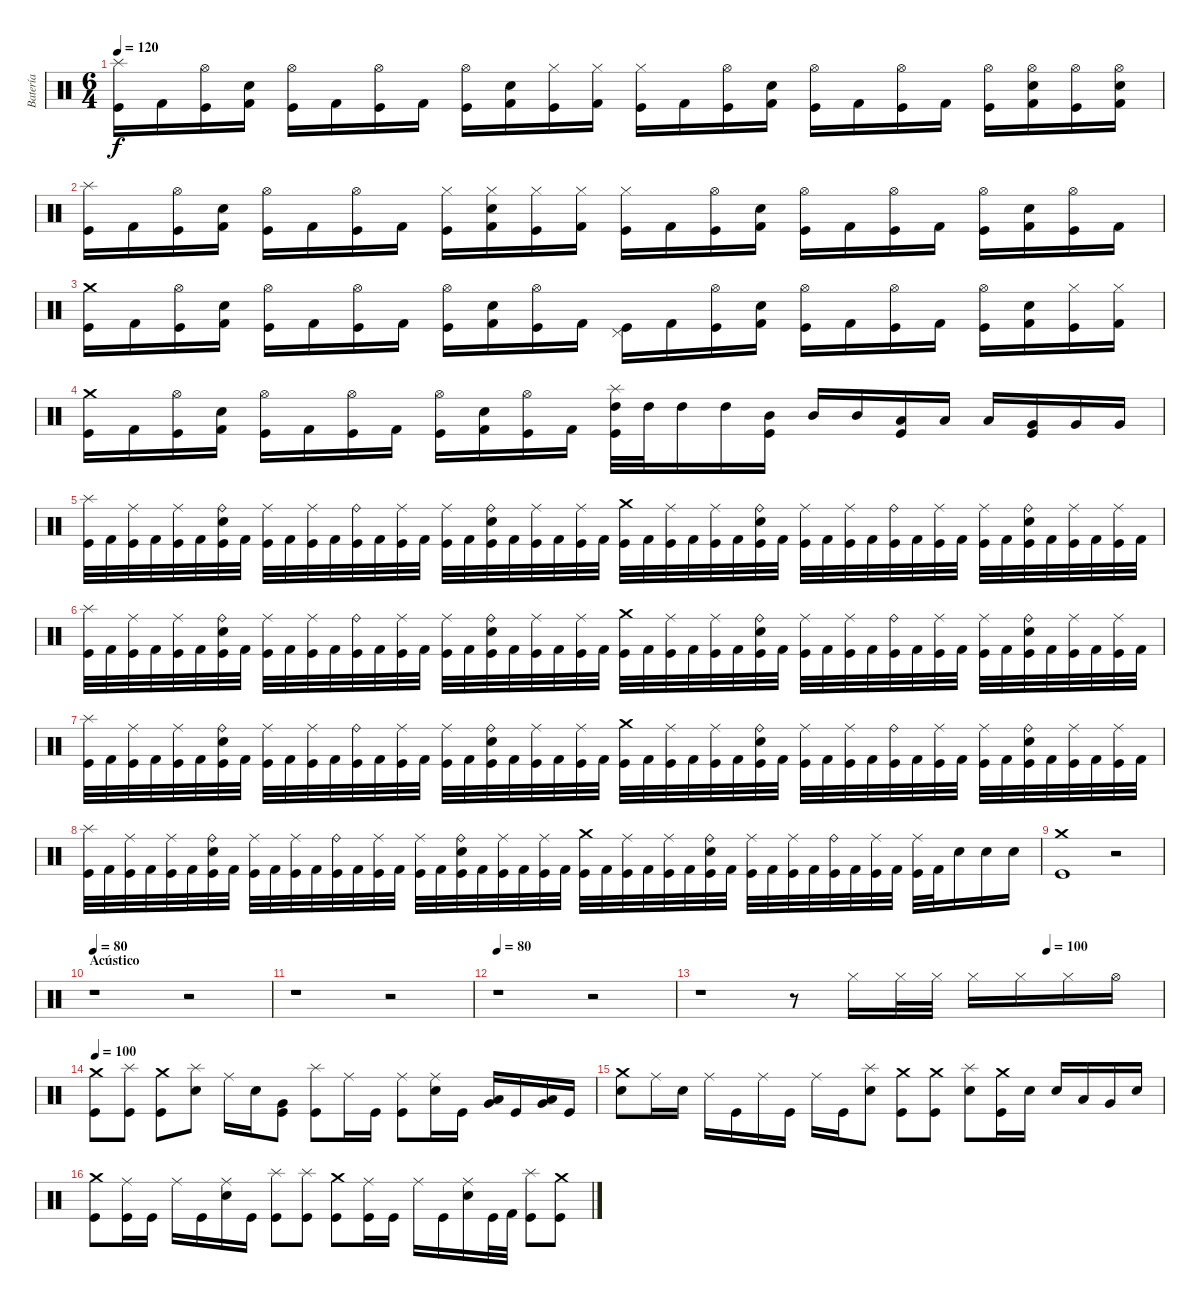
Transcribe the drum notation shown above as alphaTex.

\track ("Batería" "Batería") {instrument percussion}
\staff {score}
\articulation defaults
\ts (6 4)
\tempo 120
\clef neutral
\ks c
("Splash (hit)" "Kick (hit)").16{dy f} "Kick (hit) 2".16 ("Hi-Hat (open)" "Kick (hit)").16 ("Electric Snare (hit)" "Kick (hit) 2").16 ("Hi-Hat (open)" "Kick (hit)").16 "Kick (hit) 2".16 ("Hi-Hat (open)" "Kick (hit)").16 "Kick (hit) 2".16 ("Hi-Hat (open)" "Kick (hit)").16 ("Electric Snare (hit)" "Kick (hit) 2").16 ("Hi-Hat (closed)" "Kick (hit)").16 ("Hi-Hat (closed)" "Kick (hit) 2").16 ("Hi-Hat (closed)" "Kick (hit)").16 "Kick (hit) 2".16 ("Hi-Hat (open)" "Kick (hit)").16 ("Electric Snare (hit)" "Kick (hit) 2").16 ("Hi-Hat (open)" "Kick (hit)").16 "Kick (hit) 2".16 ("Hi-Hat (open)" "Kick (hit)").16 "Kick (hit) 2".16 ("Hi-Hat (open)" "Kick (hit)").16 ("Hi-Hat (open)" "Electric Snare (hit)" "Kick (hit) 2").16 ("Hi-Hat (open)" "Kick (hit)").16 ("Hi-Hat (open)" "Electric Snare (hit)" "Kick (hit) 2").16 |
("Splash (hit)" "Kick (hit)").16 "Kick (hit) 2".16 ("Hi-Hat (open)" "Kick (hit)").16 ("Electric Snare (hit)" "Kick (hit) 2").16 ("Hi-Hat (open)" "Kick (hit)").16 "Kick (hit) 2".16 ("Hi-Hat (open)" "Kick (hit)").16 "Kick (hit) 2".16 ("Hi-Hat (closed)" "Kick (hit)").16 ("Hi-Hat (closed)" "Electric Snare (hit)" "Kick (hit) 2").16 ("Hi-Hat (closed)" "Kick (hit)").16 ("Hi-Hat (closed)" "Kick (hit) 2").16 ("Hi-Hat (closed)" "Kick (hit)").16 "Kick (hit) 2".16 ("Hi-Hat (open)" "Kick (hit)").16 ("Electric Snare (hit)" "Kick (hit) 2").16 ("Hi-Hat (open)" "Kick (hit)").16 "Kick (hit) 2".16 ("Hi-Hat (open)" "Kick (hit)").16 "Kick (hit) 2".16 ("Hi-Hat (open)" "Kick (hit)").16 ("Electric Snare (hit)" "Kick (hit) 2").16 ("Hi-Hat (open)" "Kick (hit)").16 "Kick (hit) 2".16 |
("Crash medium (hit)" "Kick (hit)").16 "Kick (hit) 2".16 ("Hi-Hat (open)" "Kick (hit)").16 ("Electric Snare (hit)" "Kick (hit) 2").16 ("Hi-Hat (open)" "Kick (hit)").16 "Kick (hit) 2".16 ("Hi-Hat (open)" "Kick (hit)").16 "Kick (hit) 2".16 ("Hi-Hat (open)" "Kick (hit)").16 ("Electric Snare (hit)" "Kick (hit) 2").16 ("Hi-Hat (open)" "Kick (hit)").16 "Kick (hit) 2".16 ("Pedal Hi-Hat (hit)" "Kick (hit)").16 "Kick (hit) 2".16 ("Hi-Hat (open)" "Kick (hit)").16 ("Electric Snare (hit)" "Kick (hit) 2").16 ("Hi-Hat (open)" "Kick (hit)").16 "Kick (hit) 2".16 ("Hi-Hat (open)" "Kick (hit)").16 "Kick (hit) 2".16 ("Hi-Hat (open)" "Kick (hit)").16 ("Electric Snare (hit)" "Kick (hit) 2").16 ("Hi-Hat (closed)" "Kick (hit)").16 ("Hi-Hat (closed)" "Kick (hit) 2").16 |
("Crash medium (hit)" "Kick (hit)").16 "Kick (hit) 2".16 ("Hi-Hat (open)" "Kick (hit)").16 ("Electric Snare (hit)" "Kick (hit) 2").16 ("Hi-Hat (open)" "Kick (hit)").16 "Kick (hit) 2".16 ("Hi-Hat (open)" "Kick (hit)").16 "Kick (hit) 2".16 ("Hi-Hat (open)" "Kick (hit)").16 ("Electric Snare (hit)" "Kick (hit) 2").16 ("Hi-Hat (open)" "Kick (hit)").16 "Kick (hit) 2".16 ("Splash (hit)" "High Tom (hit)" "Kick (hit)").32 "High Tom (hit)".32 "High Tom (hit)".16 "High Tom (hit)".16 ("Mid Tom (hit)" "Kick (hit)").16 "Mid Tom (hit)".16 "Mid Tom (hit)".16 ("Low Tom (hit)" "Kick (hit)").16 "Low Tom (hit)".16 "Low Tom (hit)".16 ("Very Low Tom (hit)" "Kick (hit)").16 "Very Low Tom (hit)".16 "Very Low Tom (hit)".16 |
("Splash (hit)" "Kick (hit)").32 "Kick (hit) 2".32 ("Ride (middle)" "Kick (hit)").32 "Kick (hit) 2".32 ("Ride (middle)" "Kick (hit)").32 "Kick (hit) 2".32 ("Ride (bell)" "Electric Snare (hit)" "Kick (hit)").32 "Kick (hit) 2".32 ("Ride (middle)" "Kick (hit)").32 "Kick (hit) 2".32 ("Ride (middle)" "Kick (hit)").32 "Kick (hit) 2".32 ("Ride (bell)" "Kick (hit)").32 "Kick (hit) 2".32 ("Ride (middle)" "Kick (hit)").32 "Kick (hit) 2".32 ("Ride (middle)" "Kick (hit)").32 "Kick (hit) 2".32 ("Ride (bell)" "Electric Snare (hit)" "Kick (hit)").32 "Kick (hit) 2".32 ("Ride (middle)" "Kick (hit)").32 "Kick (hit) 2".32 ("Ride (middle)" "Kick (hit)").32 "Kick (hit) 2".32 ("Crash medium (hit)" "Kick (hit)").32 "Kick (hit) 2".32 ("Ride (middle)" "Kick (hit)").32 "Kick (hit) 2".32 ("Ride (middle)" "Kick (hit)").32 "Kick (hit) 2".32 ("Ride (bell)" "Electric Snare (hit)" "Kick (hit)").32 "Kick (hit) 2".32 ("Ride (middle)" "Kick (hit)").32 "Kick (hit) 2".32 ("Ride (middle)" "Kick (hit)").32 "Kick (hit) 2".32 ("Ride (bell)" "Kick (hit)").32 "Kick (hit) 2".32 ("Ride (middle)" "Kick (hit)").32 "Kick (hit) 2".32 ("Ride (middle)" "Kick (hit)").32 "Kick (hit) 2".32 ("Ride (bell)" "Electric Snare (hit)" "Kick (hit)").32 "Kick (hit) 2".32 ("Ride (middle)" "Kick (hit)").32 "Kick (hit) 2".32 ("Ride (middle)" "Kick (hit)").32 "Kick (hit) 2".32 |
("Splash (hit)" "Kick (hit)").32 "Kick (hit) 2".32 ("Ride (middle)" "Kick (hit)").32 "Kick (hit) 2".32 ("Ride (middle)" "Kick (hit)").32 "Kick (hit) 2".32 ("Ride (bell)" "Electric Snare (hit)" "Kick (hit)").32 "Kick (hit) 2".32 ("Ride (middle)" "Kick (hit)").32 "Kick (hit) 2".32 ("Ride (middle)" "Kick (hit)").32 "Kick (hit) 2".32 ("Ride (bell)" "Kick (hit)").32 "Kick (hit) 2".32 ("Ride (middle)" "Kick (hit)").32 "Kick (hit) 2".32 ("Ride (middle)" "Kick (hit)").32 "Kick (hit) 2".32 ("Ride (bell)" "Electric Snare (hit)" "Kick (hit)").32 "Kick (hit) 2".32 ("Ride (middle)" "Kick (hit)").32 "Kick (hit) 2".32 ("Ride (middle)" "Kick (hit)").32 "Kick (hit) 2".32 ("Crash medium (hit)" "Kick (hit)").32 "Kick (hit) 2".32 ("Ride (middle)" "Kick (hit)").32 "Kick (hit) 2".32 ("Ride (middle)" "Kick (hit)").32 "Kick (hit) 2".32 ("Ride (bell)" "Electric Snare (hit)" "Kick (hit)").32 "Kick (hit) 2".32 ("Ride (middle)" "Kick (hit)").32 "Kick (hit) 2".32 ("Ride (middle)" "Kick (hit)").32 "Kick (hit) 2".32 ("Ride (bell)" "Kick (hit)").32 "Kick (hit) 2".32 ("Ride (middle)" "Kick (hit)").32 "Kick (hit) 2".32 ("Ride (middle)" "Kick (hit)").32 "Kick (hit) 2".32 ("Ride (bell)" "Electric Snare (hit)" "Kick (hit)").32 "Kick (hit) 2".32 ("Ride (middle)" "Kick (hit)").32 "Kick (hit) 2".32 ("Ride (middle)" "Kick (hit)").32 "Kick (hit) 2".32 |
("Splash (hit)" "Kick (hit)").32 "Kick (hit) 2".32 ("Ride (middle)" "Kick (hit)").32 "Kick (hit) 2".32 ("Ride (middle)" "Kick (hit)").32 "Kick (hit) 2".32 ("Ride (bell)" "Electric Snare (hit)" "Kick (hit)").32 "Kick (hit) 2".32 ("Ride (middle)" "Kick (hit)").32 "Kick (hit) 2".32 ("Ride (middle)" "Kick (hit)").32 "Kick (hit) 2".32 ("Ride (bell)" "Kick (hit)").32 "Kick (hit) 2".32 ("Ride (middle)" "Kick (hit)").32 "Kick (hit) 2".32 ("Ride (middle)" "Kick (hit)").32 "Kick (hit) 2".32 ("Ride (bell)" "Electric Snare (hit)" "Kick (hit)").32 "Kick (hit) 2".32 ("Ride (middle)" "Kick (hit)").32 "Kick (hit) 2".32 ("Ride (middle)" "Kick (hit)").32 "Kick (hit) 2".32 ("Crash medium (hit)" "Kick (hit)").32 "Kick (hit) 2".32 ("Ride (middle)" "Kick (hit)").32 "Kick (hit) 2".32 ("Ride (middle)" "Kick (hit)").32 "Kick (hit) 2".32 ("Ride (bell)" "Electric Snare (hit)" "Kick (hit)").32 "Kick (hit) 2".32 ("Ride (middle)" "Kick (hit)").32 "Kick (hit) 2".32 ("Ride (middle)" "Kick (hit)").32 "Kick (hit) 2".32 ("Ride (bell)" "Kick (hit)").32 "Kick (hit) 2".32 ("Ride (middle)" "Kick (hit)").32 "Kick (hit) 2".32 ("Ride (middle)" "Kick (hit)").32 "Kick (hit) 2".32 ("Ride (bell)" "Electric Snare (hit)" "Kick (hit)").32 "Kick (hit) 2".32 ("Ride (middle)" "Kick (hit)").32 "Kick (hit) 2".32 ("Ride (middle)" "Kick (hit)").32 "Kick (hit) 2".32 |
("Splash (hit)" "Kick (hit)").32 "Kick (hit) 2".32 ("Ride (middle)" "Kick (hit)").32 "Kick (hit) 2".32 ("Ride (middle)" "Kick (hit)").32 "Kick (hit) 2".32 ("Ride (bell)" "Electric Snare (hit)" "Kick (hit)").32 "Kick (hit) 2".32 ("Ride (middle)" "Kick (hit)").32 "Kick (hit) 2".32 ("Ride (middle)" "Kick (hit)").32 "Kick (hit) 2".32 ("Ride (bell)" "Kick (hit)").32 "Kick (hit) 2".32 ("Ride (middle)" "Kick (hit)").32 "Kick (hit) 2".32 ("Ride (middle)" "Kick (hit)").32 "Kick (hit) 2".32 ("Ride (bell)" "Electric Snare (hit)" "Kick (hit)").32 "Kick (hit) 2".32 ("Ride (middle)" "Kick (hit)").32 "Kick (hit) 2".32 ("Ride (middle)" "Kick (hit)").32 "Kick (hit) 2".32 ("Crash medium (hit)" "Kick (hit)").32 "Kick (hit) 2".32 ("Ride (middle)" "Kick (hit)").32 "Kick (hit) 2".32 ("Ride (middle)" "Kick (hit)").32 "Kick (hit) 2".32 ("Ride (bell)" "Electric Snare (hit)" "Kick (hit)").32 "Kick (hit) 2".32 ("Ride (middle)" "Kick (hit)").32 "Kick (hit) 2".32 ("Ride (middle)" "Kick (hit)").32 "Kick (hit) 2".32 ("Ride (bell)" "Kick (hit)").32 "Kick (hit) 2".32 ("Ride (middle)" "Kick (hit)").32 "Kick (hit) 2".32 ("Ride (middle)" "Kick (hit)").32 "Kick (hit) 2".32 "Electric Snare (hit)".16 "Electric Snare (hit)".16 "Electric Snare (hit)".16 |
("Crash medium (hit)" "Kick (hit)").1 r.2 |
\section ("" "Acústico")
\tempo 80
r.1 r.2 |
r.1 r.2 |
\tempo 80
r.1 r.2 |
\tempo (100 0.75)
r.1 r.8 "Hi-Hat (closed)".16 "Hi-Hat (closed)".32 "Hi-Hat (closed)".32 "Hi-Hat (closed)".16 "Hi-Hat (closed)".16 "Hi-Hat (closed)".16 "Hi-Hat (open)".16 |
\tempo 100
("Crash medium (hit)" "Kick (hit)").8 ("Splash (hit)" "Kick (hit)").8 ("Crash medium (hit)" "Kick (hit)").8 ("Splash (hit)" "Electric Snare (hit)").8 "Ride (middle)".16 "Electric Snare (hit)".16 ("Very Low Tom (hit)" "Kick (hit)").8 ("Splash (hit)" "Kick (hit)").8 "Ride (middle)".16 "Kick (hit)".16 ("Ride (middle)" "Kick (hit)").8 ("Ride (middle)" "Electric Snare (hit)").16 "Kick (hit)".16 ("Low Tom (hit)" "Very Low Tom (hit)").16 "Kick (hit)".16 ("Low Tom (hit)" "Very Low Tom (hit)").16 "Kick (hit)".16 |
("Crash medium (hit)" "Electric Snare (hit)").8 "Ride (middle)".16 "Electric Snare (hit)".16 "Ride (middle)".16 "Kick (hit)".16 "Ride (middle)".16 "Kick (hit)".16 "Ride (middle)".16 "Kick (hit)".16 ("Splash (hit)" "Electric Snare (hit)").8 ("Crash medium (hit)" "Kick (hit)").8 ("Crash medium (hit)" "Kick (hit)").8 ("Splash (hit)" "Electric Snare (hit)").8 ("Crash medium (hit)" "Kick (hit)").16 "Electric Snare (hit)".16 "Electric Snare (hit)".16 "Low Tom (hit)".16 "Very Low Tom (hit)".16 "Electric Snare (hit)".16 |
("Crash medium (hit)" "Kick (hit)").8 ("Ride (middle)" "Kick (hit)").16 "Kick (hit)".16 "Ride (middle)".16 "Kick (hit)".16 ("Ride (middle)" "Electric Snare (hit)").16 "Kick (hit)".16 ("Splash (hit)" "Kick (hit)").8 ("Splash (hit)" "Kick (hit)").8 ("Crash medium (hit)" "Kick (hit)").8 ("Ride (middle)" "Kick (hit)").16 "Kick (hit)".16 "Ride (middle)".16 "Kick (hit)".16 ("Ride (middle)" "Electric Snare (hit)").16 "Kick (hit)".32 "Kick (hit) 2".32 ("Splash (hit)" "Kick (hit)").8 ("Crash medium (hit)" "Kick (hit)").8
